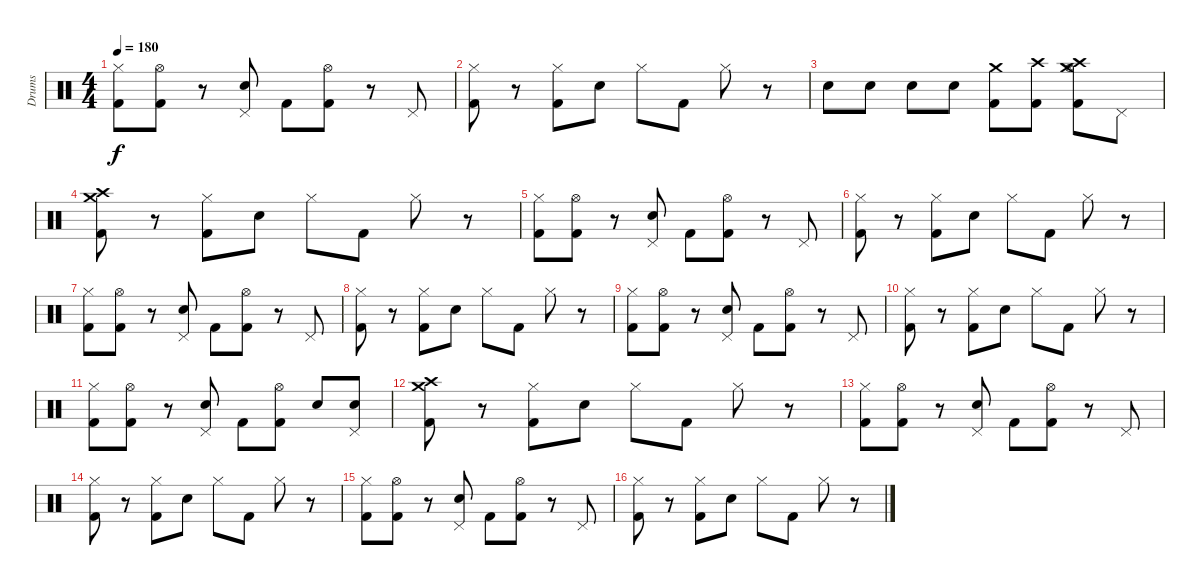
\track ("Drums" "Drums") {instrument percussion}
\staff {score}
\articulation defaults
\ts (4 4)
\tempo 180
\clef neutral
\ks c
("Hi-Hat (closed)" "Kick (hit) 2").8{dy f} ("Hi-Hat (open)" "Kick (hit) 2").8 r.8 ("Pedal Hi-Hat (hit)" "Electric Snare (hit)").8 "Kick (hit) 2".8 ("Hi-Hat (open)" "Kick (hit) 2").8 r.8 "Pedal Hi-Hat (hit)".8 |
("Hi-Hat (closed)" "Kick (hit) 2").8 r.8 ("Hi-Hat (closed)" "Kick (hit) 2").8 "Electric Snare (hit)".8 "Hi-Hat (closed)".8 "Kick (hit) 2".8 "Hi-Hat (closed)".8 r.8 |
"Electric Snare (hit)".8 "Electric Snare (hit)".8 "Electric Snare (hit)".8 "Electric Snare (hit)".8 ("Crash medium (hit)" "Kick (hit) 2").8 ("Crash high (hit)" "Kick (hit) 2").8 ("Crash high (hit)" "Crash medium (hit)" "Hi-Hat (open)" "Kick (hit) 2").8 "Pedal Hi-Hat (hit)".8 |
("Crash high (hit)" "Crash medium (hit)" "Kick (hit) 2").8 r.8 ("Hi-Hat (closed)" "Kick (hit) 2").8 "Electric Snare (hit)".8 "Hi-Hat (closed)".8 "Kick (hit) 2".8 "Hi-Hat (closed)".8 r.8 |
("Hi-Hat (closed)" "Kick (hit) 2").8 ("Hi-Hat (open)" "Kick (hit) 2").8 r.8 ("Pedal Hi-Hat (hit)" "Electric Snare (hit)").8 "Kick (hit) 2".8 ("Hi-Hat (open)" "Kick (hit) 2").8 r.8 "Pedal Hi-Hat (hit)".8 |
("Hi-Hat (closed)" "Kick (hit) 2").8 r.8 ("Hi-Hat (closed)" "Kick (hit) 2").8 "Electric Snare (hit)".8 "Hi-Hat (closed)".8 "Kick (hit) 2".8 "Hi-Hat (closed)".8 r.8 |
("Hi-Hat (closed)" "Kick (hit) 2").8 ("Hi-Hat (open)" "Kick (hit) 2").8 r.8 ("Pedal Hi-Hat (hit)" "Electric Snare (hit)").8 "Kick (hit) 2".8 ("Hi-Hat (open)" "Kick (hit) 2").8 r.8 "Pedal Hi-Hat (hit)".8 |
("Hi-Hat (closed)" "Kick (hit) 2").8 r.8 ("Hi-Hat (closed)" "Kick (hit) 2").8 "Electric Snare (hit)".8 "Hi-Hat (closed)".8 "Kick (hit) 2".8 "Hi-Hat (closed)".8 r.8 |
("Hi-Hat (closed)" "Kick (hit) 2").8 ("Hi-Hat (open)" "Kick (hit) 2").8 r.8 ("Pedal Hi-Hat (hit)" "Electric Snare (hit)").8 "Kick (hit) 2".8 ("Hi-Hat (open)" "Kick (hit) 2").8 r.8 "Pedal Hi-Hat (hit)".8 |
("Hi-Hat (closed)" "Kick (hit) 2").8 r.8 ("Hi-Hat (closed)" "Kick (hit) 2").8 "Electric Snare (hit)".8 "Hi-Hat (closed)".8 "Kick (hit) 2".8 "Hi-Hat (closed)".8 r.8 |
("Hi-Hat (closed)" "Kick (hit) 2").8 ("Hi-Hat (open)" "Kick (hit) 2").8 r.8 ("Pedal Hi-Hat (hit)" "Electric Snare (hit)").8 "Kick (hit) 2".8 ("Hi-Hat (open)" "Kick (hit) 2").8 "Electric Snare (hit)".8 ("Pedal Hi-Hat (hit)" "Electric Snare (hit)").8 |
("Crash high (hit)" "Crash medium (hit)" "Kick (hit) 2").8 r.8 ("Hi-Hat (closed)" "Kick (hit) 2").8 "Electric Snare (hit)".8 "Hi-Hat (closed)".8 "Kick (hit) 2".8 "Hi-Hat (closed)".8 r.8 |
("Hi-Hat (closed)" "Kick (hit) 2").8 ("Hi-Hat (open)" "Kick (hit) 2").8 r.8 ("Pedal Hi-Hat (hit)" "Electric Snare (hit)").8 "Kick (hit) 2".8 ("Hi-Hat (open)" "Kick (hit) 2").8 r.8 "Pedal Hi-Hat (hit)".8 |
("Hi-Hat (closed)" "Kick (hit) 2").8 r.8 ("Hi-Hat (closed)" "Kick (hit) 2").8 "Electric Snare (hit)".8 "Hi-Hat (closed)".8 "Kick (hit) 2".8 "Hi-Hat (closed)".8 r.8 |
("Hi-Hat (closed)" "Kick (hit) 2").8 ("Hi-Hat (open)" "Kick (hit) 2").8 r.8 ("Pedal Hi-Hat (hit)" "Electric Snare (hit)").8 "Kick (hit) 2".8 ("Hi-Hat (open)" "Kick (hit) 2").8 r.8 "Pedal Hi-Hat (hit)".8 |
("Hi-Hat (closed)" "Kick (hit) 2").8 r.8 ("Hi-Hat (closed)" "Kick (hit) 2").8 "Electric Snare (hit)".8 "Hi-Hat (closed)".8 "Kick (hit) 2".8 "Hi-Hat (closed)".8 r.8
